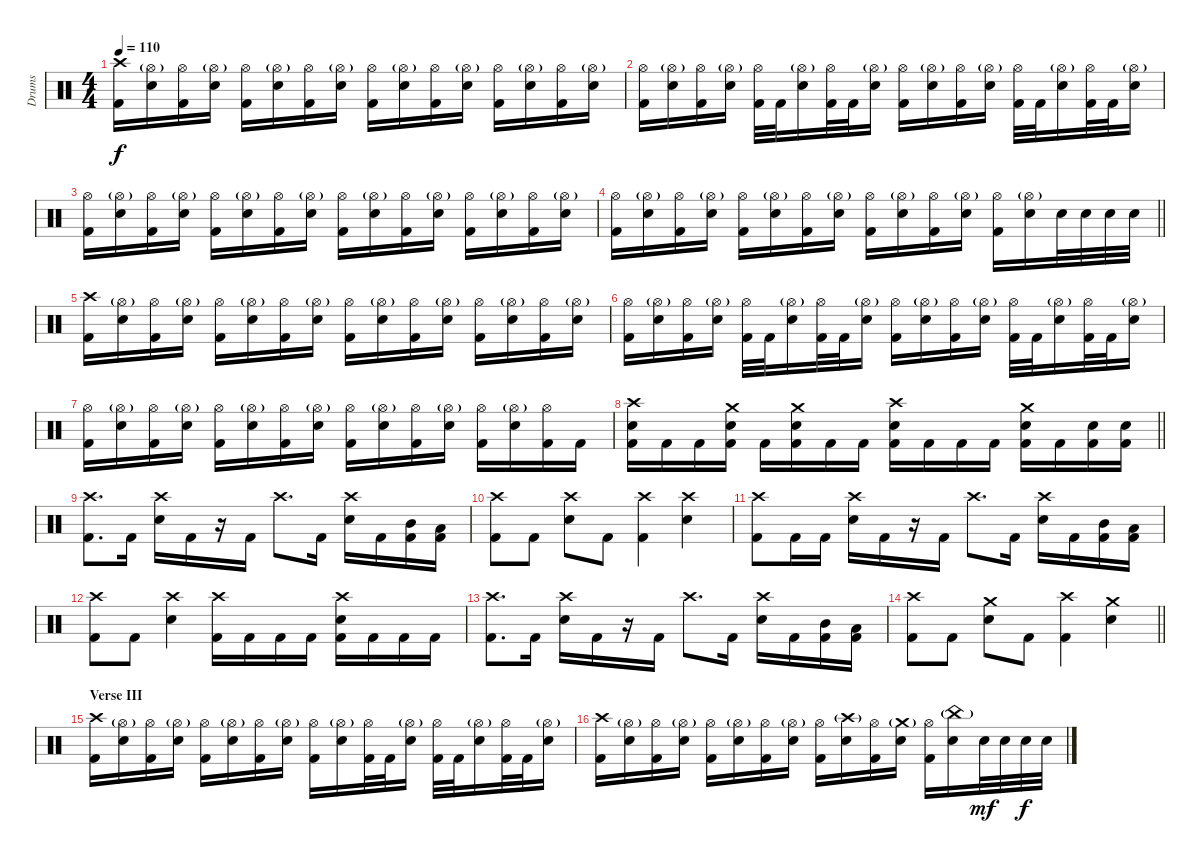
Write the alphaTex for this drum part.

\track ("Drums" "Drums") {instrument percussion}
\staff {score}
\articulation defaults
\ts (4 4)
\tempo 110
\clef neutral
\ks c
("Crash high (hit)" "Kick (hit) 2").16{dy f} ("Hi-Hat (open)"{g} "Electric Snare (hit)").16 ("Hi-Hat (open)" "Kick (hit) 2").16 ("Hi-Hat (open)"{g} "Electric Snare (hit)").16 ("Hi-Hat (open)" "Kick (hit) 2").16 ("Hi-Hat (open)"{g} "Electric Snare (hit)").16 ("Hi-Hat (open)" "Kick (hit) 2").16 ("Hi-Hat (open)"{g} "Electric Snare (hit)").16 ("Hi-Hat (open)" "Kick (hit) 2").16 ("Hi-Hat (open)"{g} "Electric Snare (hit)").16 ("Hi-Hat (open)" "Kick (hit) 2").16 ("Hi-Hat (open)"{g} "Electric Snare (hit)").16 ("Hi-Hat (open)" "Kick (hit) 2").16 ("Hi-Hat (open)"{g} "Electric Snare (hit)").16 ("Hi-Hat (open)" "Kick (hit) 2").16 ("Hi-Hat (open)"{g} "Electric Snare (hit)").16 |
("Hi-Hat (open)" "Kick (hit) 2").16 ("Hi-Hat (open)"{g} "Electric Snare (hit)").16 ("Hi-Hat (open)" "Kick (hit) 2").16 ("Hi-Hat (open)"{g} "Electric Snare (hit)").16 ("Hi-Hat (open)" "Kick (hit) 2").32 "Kick (hit) 2".32 ("Hi-Hat (open)"{g} "Electric Snare (hit)").16 ("Hi-Hat (open)" "Kick (hit) 2").32 "Kick (hit) 2".32 ("Hi-Hat (open)"{g} "Electric Snare (hit)").16 ("Hi-Hat (open)" "Kick (hit) 2").16 ("Hi-Hat (open)"{g} "Electric Snare (hit)").16 ("Hi-Hat (open)" "Kick (hit) 2").16 ("Hi-Hat (open)"{g} "Electric Snare (hit)").16 ("Hi-Hat (open)" "Kick (hit) 2").32 "Kick (hit) 2".32 ("Hi-Hat (open)"{g} "Electric Snare (hit)").16 ("Hi-Hat (open)" "Kick (hit) 2").32 "Kick (hit) 2".32 ("Hi-Hat (open)"{g} "Electric Snare (hit)").16 |
("Hi-Hat (open)" "Kick (hit) 2").16 ("Hi-Hat (open)"{g} "Electric Snare (hit)").16 ("Hi-Hat (open)" "Kick (hit) 2").16 ("Hi-Hat (open)"{g} "Electric Snare (hit)").16 ("Hi-Hat (open)" "Kick (hit) 2").16 ("Hi-Hat (open)"{g} "Electric Snare (hit)").16 ("Hi-Hat (open)" "Kick (hit) 2").16 ("Hi-Hat (open)"{g} "Electric Snare (hit)").16 ("Hi-Hat (open)" "Kick (hit) 2").16 ("Hi-Hat (open)"{g} "Electric Snare (hit)").16 ("Hi-Hat (open)" "Kick (hit) 2").16 ("Hi-Hat (open)"{g} "Electric Snare (hit)").16 ("Hi-Hat (open)" "Kick (hit) 2").16 ("Hi-Hat (open)"{g} "Electric Snare (hit)").16 ("Hi-Hat (open)" "Kick (hit) 2").16 ("Hi-Hat (open)"{g} "Electric Snare (hit)").16 |
\barLineRight lightlight
("Hi-Hat (open)" "Kick (hit) 2").16 ("Hi-Hat (open)"{g} "Electric Snare (hit)").16 ("Hi-Hat (open)" "Kick (hit) 2").16 ("Hi-Hat (open)"{g} "Electric Snare (hit)").16 ("Hi-Hat (open)" "Kick (hit) 2").16 ("Hi-Hat (open)"{g} "Electric Snare (hit)").16 ("Hi-Hat (open)" "Kick (hit) 2").16 ("Hi-Hat (open)"{g} "Electric Snare (hit)").16 ("Hi-Hat (open)" "Kick (hit) 2").16 ("Hi-Hat (open)"{g} "Electric Snare (hit)").16 ("Hi-Hat (open)" "Kick (hit) 2").16 ("Hi-Hat (open)"{g} "Electric Snare (hit)").16 ("Hi-Hat (open)" "Kick (hit) 2").16 ("Hi-Hat (open)"{g} "Electric Snare (hit)").16 "Electric Snare (hit)".32 "Electric Snare (hit)".32 "Electric Snare (hit)".32 "Electric Snare (hit)".32 |
("Crash high (hit)" "Kick (hit) 2").16 ("Hi-Hat (open)"{g} "Electric Snare (hit)").16 ("Hi-Hat (open)" "Kick (hit) 2").16 ("Hi-Hat (open)"{g} "Electric Snare (hit)").16 ("Hi-Hat (open)" "Kick (hit) 2").16 ("Hi-Hat (open)"{g} "Electric Snare (hit)").16 ("Hi-Hat (open)" "Kick (hit) 2").16 ("Hi-Hat (open)"{g} "Electric Snare (hit)").16 ("Hi-Hat (open)" "Kick (hit) 2").16 ("Hi-Hat (open)"{g} "Electric Snare (hit)").16 ("Hi-Hat (open)" "Kick (hit) 2").16 ("Hi-Hat (open)"{g} "Electric Snare (hit)").16 ("Hi-Hat (open)" "Kick (hit) 2").16 ("Hi-Hat (open)"{g} "Electric Snare (hit)").16 ("Hi-Hat (open)" "Kick (hit) 2").16 ("Hi-Hat (open)"{g} "Electric Snare (hit)").16 |
("Hi-Hat (open)" "Kick (hit) 2").16 ("Hi-Hat (open)"{g} "Electric Snare (hit)").16 ("Hi-Hat (open)" "Kick (hit) 2").16 ("Hi-Hat (open)"{g} "Electric Snare (hit)").16 ("Hi-Hat (open)" "Kick (hit) 2").32 "Kick (hit) 2".32 ("Hi-Hat (open)"{g} "Electric Snare (hit)").16 ("Hi-Hat (open)" "Kick (hit) 2").32 "Kick (hit) 2".32 ("Hi-Hat (open)"{g} "Electric Snare (hit)").16 ("Hi-Hat (open)" "Kick (hit) 2").16 ("Hi-Hat (open)"{g} "Electric Snare (hit)").16 ("Hi-Hat (open)" "Kick (hit) 2").16 ("Hi-Hat (open)"{g} "Electric Snare (hit)").16 ("Hi-Hat (open)" "Kick (hit) 2").32 "Kick (hit) 2".32 ("Hi-Hat (open)"{g} "Electric Snare (hit)").16 ("Hi-Hat (open)" "Kick (hit) 2").32 "Kick (hit) 2".32 ("Hi-Hat (open)"{g} "Electric Snare (hit)").16 |
("Hi-Hat (open)" "Kick (hit) 2").16 ("Hi-Hat (open)"{g} "Electric Snare (hit)").16 ("Hi-Hat (open)" "Kick (hit) 2").16 ("Hi-Hat (open)"{g} "Electric Snare (hit)").16 ("Hi-Hat (open)" "Kick (hit) 2").16 ("Hi-Hat (open)"{g} "Electric Snare (hit)").16 ("Hi-Hat (open)" "Kick (hit) 2").16 ("Hi-Hat (open)"{g} "Electric Snare (hit)").16 ("Hi-Hat (open)" "Kick (hit) 2").16 ("Hi-Hat (open)"{g} "Electric Snare (hit)").16 ("Hi-Hat (open)" "Kick (hit) 2").16 ("Hi-Hat (open)"{g} "Electric Snare (hit)").16 ("Hi-Hat (open)" "Kick (hit) 2").16 ("Hi-Hat (open)"{g} "Electric Snare (hit)").16 ("Hi-Hat (open)" "Kick (hit) 2").16 "Kick (hit) 2".16 |
\barLineRight lightlight
("Crash high (hit)" "Electric Snare (hit)" "Kick (hit) 2").16 "Kick (hit) 2".16 "Kick (hit) 2".16 ("Crash medium (hit)" "Electric Snare (hit)" "Kick (hit) 2").16 "Kick (hit) 2".16 ("Crash medium (hit)" "Electric Snare (hit)" "Kick (hit) 2").16 "Kick (hit) 2".16 "Kick (hit) 2".16 ("Crash high (hit)" "Electric Snare (hit)" "Kick (hit) 2").16 "Kick (hit) 2".16 "Kick (hit) 2".16 "Kick (hit) 2".16 ("Crash medium (hit)" "Electric Snare (hit)" "Kick (hit) 2").16 "Kick (hit) 2".16 ("Electric Snare (hit)" "Kick (hit) 2").16 ("Electric Snare (hit)" "Kick (hit) 2").16 |
("Crash high (hit)" "Kick (hit) 2").8{d} "Kick (hit) 2".16 ("Crash high (hit)" "Electric Snare (hit)").16 "Kick (hit) 2".16 r.16 "Kick (hit) 2".16 "Crash high (hit)".8{d} "Kick (hit) 2".16 ("Crash high (hit)" "Electric Snare (hit)").16 "Kick (hit) 2".16 ("Mid Tom (hit)" "Kick (hit) 2").16 ("Low Tom (hit)" "Kick (hit) 2").16 |
("Crash high (hit)" "Kick (hit) 2").8 "Kick (hit) 2".8 ("Crash high (hit)" "Electric Snare (hit)").8 "Kick (hit) 2".8 ("Crash high (hit)" "Kick (hit) 2").4 ("Crash high (hit)" "Electric Snare (hit)").4 |
("Crash high (hit)" "Kick (hit) 2").8 "Kick (hit) 2".16 "Kick (hit) 2".16 ("Crash high (hit)" "Electric Snare (hit)").16 "Kick (hit) 2".16 r.16 "Kick (hit) 2".16 "Crash high (hit)".8{d} "Kick (hit) 2".16 ("Crash high (hit)" "Electric Snare (hit)").16 "Kick (hit) 2".16 ("Mid Tom (hit)" "Kick (hit) 2").16 ("Low Tom (hit)" "Kick (hit) 2").16 |
("Crash high (hit)" "Kick (hit) 2").8 "Kick (hit) 2".8 ("Crash high (hit)" "Electric Snare (hit)").4 ("Crash high (hit)" "Kick (hit) 2").16 "Kick (hit) 2".16 "Kick (hit) 2".16 "Kick (hit) 2".16 ("Crash high (hit)" "Electric Snare (hit)" "Kick (hit) 2").16 "Kick (hit) 2".16 "Kick (hit) 2".16 "Kick (hit) 2".16 |
("Crash high (hit)" "Kick (hit) 2").8{d} "Kick (hit) 2".16 ("Crash high (hit)" "Electric Snare (hit)").16 "Kick (hit) 2".16 r.16 "Kick (hit) 2".16 "Crash high (hit)".8{d} "Kick (hit) 2".16 ("Crash high (hit)" "Electric Snare (hit)").16 "Kick (hit) 2".16 ("Mid Tom (hit)" "Kick (hit) 2").16 ("Low Tom (hit)" "Kick (hit) 2").16 |
\barLineRight lightlight
("Crash high (hit)" "Kick (hit) 2").8 "Kick (hit) 2".8 ("Crash medium (hit)" "Electric Snare (hit)").8 "Kick (hit) 2".8 ("Crash high (hit)" "Kick (hit) 2").4 ("Crash medium (hit)" "Electric Snare (hit)").4 |
\section ("" "Verse III")
("Crash high (hit)" "Kick (hit) 2").16 ("Hi-Hat (open)"{g} "Electric Snare (hit)").16 ("Hi-Hat (open)" "Kick (hit) 2").16 ("Hi-Hat (open)"{g} "Electric Snare (hit)").16 ("Hi-Hat (open)" "Kick (hit) 2").16 ("Hi-Hat (open)"{g} "Electric Snare (hit)").16 ("Hi-Hat (open)" "Kick (hit) 2").16 ("Hi-Hat (open)"{g} "Electric Snare (hit)").16 ("Hi-Hat (open)" "Kick (hit) 2").16 ("Hi-Hat (open)"{g} "Electric Snare (hit)").16 ("Hi-Hat (open)" "Kick (hit) 2").32 "Kick (hit) 2".32 ("Hi-Hat (open)"{g} "Electric Snare (hit)").16 ("Hi-Hat (open)" "Kick (hit) 2").32 "Kick (hit) 2".32 ("Hi-Hat (open)"{g} "Electric Snare (hit)").16 ("Hi-Hat (open)" "Kick (hit) 2").32 "Kick (hit) 2".32 ("Hi-Hat (open)"{g} "Electric Snare (hit)").16 |
("Crash high (hit)" "Kick (hit) 2").16 ("Hi-Hat (open)"{g} "Electric Snare (hit)").16 ("Hi-Hat (open)" "Kick (hit) 2").16 ("Hi-Hat (open)"{g} "Electric Snare (hit)").16 ("Hi-Hat (open)" "Kick (hit) 2").16 ("Hi-Hat (open)"{g} "Electric Snare (hit)").16 ("Hi-Hat (open)" "Kick (hit) 2").16 ("Hi-Hat (open)"{g} "Electric Snare (hit)").16 ("Hi-Hat (open)" "Kick (hit) 2").16 ("Crash high (hit)"{g} "Electric Snare (hit)").16 ("Hi-Hat (open)" "Kick (hit) 2").16 ("Crash medium (hit)"{g} "Electric Snare (hit)").16 ("Hi-Hat (open)" "Kick (hit) 2").16 ("China (hit)"{g} "Electric Snare (hit)").16 "Electric Snare (hit)".32{dy mf} "Electric Snare (hit)".32 "Electric Snare (hit)".32{dy f} "Electric Snare (hit)".32
